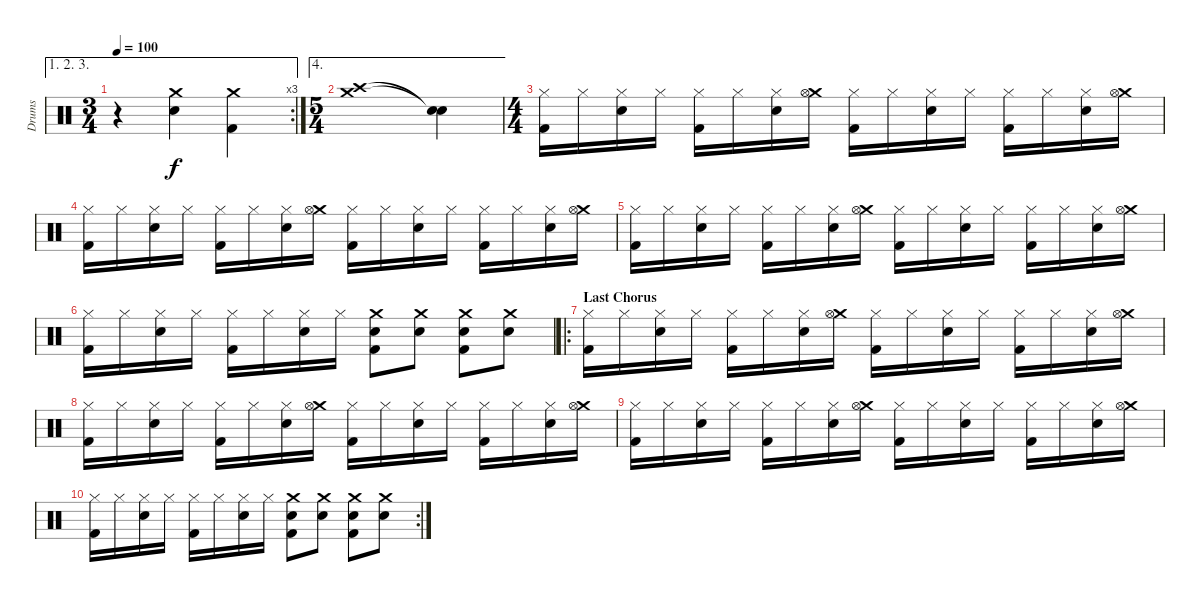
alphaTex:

\track ("Drums" "Drums") {instrument percussion}
\staff {score}
\articulation defaults
\ae (1 2 3)
\rc 3
\ts (3 4)
\tempo 100
\clef neutral
\ks c
r.4{dy f} ("Crash medium (hit)" "Snare (hit) 2").4 ("Crash medium (hit)" "Kick (hit) 2").4 |
\ae 4
\ts (5 4)
("Crash high (hit)" "Crash medium (hit)").1 ("Snare (hit)"{t} "Snare (hit)"{t}).4 |
\ts (4 4)
("Hi-Hat (closed)" "Kick (hit) 2").16 "Hi-Hat (closed)".16 ("Hi-Hat (closed)" "Snare (hit) 2").16 "Hi-Hat (closed)".16 ("Hi-Hat (closed)" "Kick (hit) 2").16 "Hi-Hat (closed)".16 ("Hi-Hat (closed)" "Snare (hit) 2").16 ("Crash medium (hit)" "Hi-Hat (open)").16 ("Hi-Hat (closed)" "Kick (hit) 2").16 "Hi-Hat (closed)".16 ("Hi-Hat (closed)" "Snare (hit) 2").16 "Hi-Hat (closed)".16 ("Hi-Hat (closed)" "Kick (hit) 2").16 "Hi-Hat (closed)".16 ("Hi-Hat (closed)" "Snare (hit) 2").16 ("Crash medium (hit)" "Hi-Hat (open)").16 |
("Hi-Hat (closed)" "Kick (hit) 2").16 "Hi-Hat (closed)".16 ("Hi-Hat (closed)" "Snare (hit) 2").16 "Hi-Hat (closed)".16 ("Hi-Hat (closed)" "Kick (hit) 2").16 "Hi-Hat (closed)".16 ("Hi-Hat (closed)" "Snare (hit) 2").16 ("Crash medium (hit)" "Hi-Hat (open)").16 ("Hi-Hat (closed)" "Kick (hit) 2").16 "Hi-Hat (closed)".16 ("Hi-Hat (closed)" "Snare (hit) 2").16 "Hi-Hat (closed)".16 ("Hi-Hat (closed)" "Kick (hit) 2").16 "Hi-Hat (closed)".16 ("Hi-Hat (closed)" "Snare (hit) 2").16 ("Crash medium (hit)" "Hi-Hat (open)").16 |
("Hi-Hat (closed)" "Kick (hit) 2").16 "Hi-Hat (closed)".16 ("Hi-Hat (closed)" "Snare (hit) 2").16 "Hi-Hat (closed)".16 ("Hi-Hat (closed)" "Kick (hit) 2").16 "Hi-Hat (closed)".16 ("Hi-Hat (closed)" "Snare (hit) 2").16 ("Crash medium (hit)" "Hi-Hat (open)").16 ("Hi-Hat (closed)" "Kick (hit) 2").16 "Hi-Hat (closed)".16 ("Hi-Hat (closed)" "Snare (hit) 2").16 "Hi-Hat (closed)".16 ("Hi-Hat (closed)" "Kick (hit) 2").16 "Hi-Hat (closed)".16 ("Hi-Hat (closed)" "Snare (hit) 2").16 ("Crash medium (hit)" "Hi-Hat (open)").16 |
("Hi-Hat (closed)" "Kick (hit) 2").16 "Hi-Hat (closed)".16 ("Hi-Hat (closed)" "Snare (hit) 2").16 "Hi-Hat (closed)".16 ("Hi-Hat (closed)" "Kick (hit) 2").16 "Hi-Hat (closed)".16 ("Hi-Hat (closed)" "Snare (hit) 2").16 "Hi-Hat (closed)".16 ("Crash medium (hit)" "Snare (hit) 2" "Kick (hit) 2").8 ("Crash medium (hit)" "Snare (hit) 2").8 ("Crash medium (hit)" "Snare (hit) 2" "Kick (hit) 2").8 ("Crash medium (hit)" "Snare (hit) 2").8 |
\ro
\section ("" "Last Chorus")
("Hi-Hat (closed)" "Kick (hit) 2").16 "Hi-Hat (closed)".16 ("Hi-Hat (closed)" "Snare (hit) 2").16 "Hi-Hat (closed)".16 ("Hi-Hat (closed)" "Kick (hit) 2").16 "Hi-Hat (closed)".16 ("Hi-Hat (closed)" "Snare (hit) 2").16 ("Crash medium (hit)" "Hi-Hat (open)").16 ("Hi-Hat (closed)" "Kick (hit) 2").16 "Hi-Hat (closed)".16 ("Hi-Hat (closed)" "Snare (hit) 2").16 "Hi-Hat (closed)".16 ("Hi-Hat (closed)" "Kick (hit) 2").16 "Hi-Hat (closed)".16 ("Hi-Hat (closed)" "Snare (hit) 2").16 ("Crash medium (hit)" "Hi-Hat (open)").16 |
("Hi-Hat (closed)" "Kick (hit) 2").16 "Hi-Hat (closed)".16 ("Hi-Hat (closed)" "Snare (hit) 2").16 "Hi-Hat (closed)".16 ("Hi-Hat (closed)" "Kick (hit) 2").16 "Hi-Hat (closed)".16 ("Hi-Hat (closed)" "Snare (hit) 2").16 ("Crash medium (hit)" "Hi-Hat (open)").16 ("Hi-Hat (closed)" "Kick (hit) 2").16 "Hi-Hat (closed)".16 ("Hi-Hat (closed)" "Snare (hit) 2").16 "Hi-Hat (closed)".16 ("Hi-Hat (closed)" "Kick (hit) 2").16 "Hi-Hat (closed)".16 ("Hi-Hat (closed)" "Snare (hit) 2").16 ("Crash medium (hit)" "Hi-Hat (open)").16 |
("Hi-Hat (closed)" "Kick (hit) 2").16 "Hi-Hat (closed)".16 ("Hi-Hat (closed)" "Snare (hit) 2").16 "Hi-Hat (closed)".16 ("Hi-Hat (closed)" "Kick (hit) 2").16 "Hi-Hat (closed)".16 ("Hi-Hat (closed)" "Snare (hit) 2").16 ("Crash medium (hit)" "Hi-Hat (open)").16 ("Hi-Hat (closed)" "Kick (hit) 2").16 "Hi-Hat (closed)".16 ("Hi-Hat (closed)" "Snare (hit) 2").16 "Hi-Hat (closed)".16 ("Hi-Hat (closed)" "Kick (hit) 2").16 "Hi-Hat (closed)".16 ("Hi-Hat (closed)" "Snare (hit) 2").16 ("Crash medium (hit)" "Hi-Hat (open)").16 |
\rc 2
("Hi-Hat (closed)" "Kick (hit) 2").16 "Hi-Hat (closed)".16 ("Hi-Hat (closed)" "Snare (hit) 2").16 "Hi-Hat (closed)".16 ("Hi-Hat (closed)" "Kick (hit) 2").16 "Hi-Hat (closed)".16 ("Hi-Hat (closed)" "Snare (hit) 2").16 "Hi-Hat (closed)".16 ("Crash medium (hit)" "Snare (hit) 2" "Kick (hit) 2").8 ("Crash medium (hit)" "Snare (hit) 2").8 ("Crash medium (hit)" "Snare (hit) 2" "Kick (hit) 2").8 ("Crash medium (hit)" "Snare (hit) 2").8
